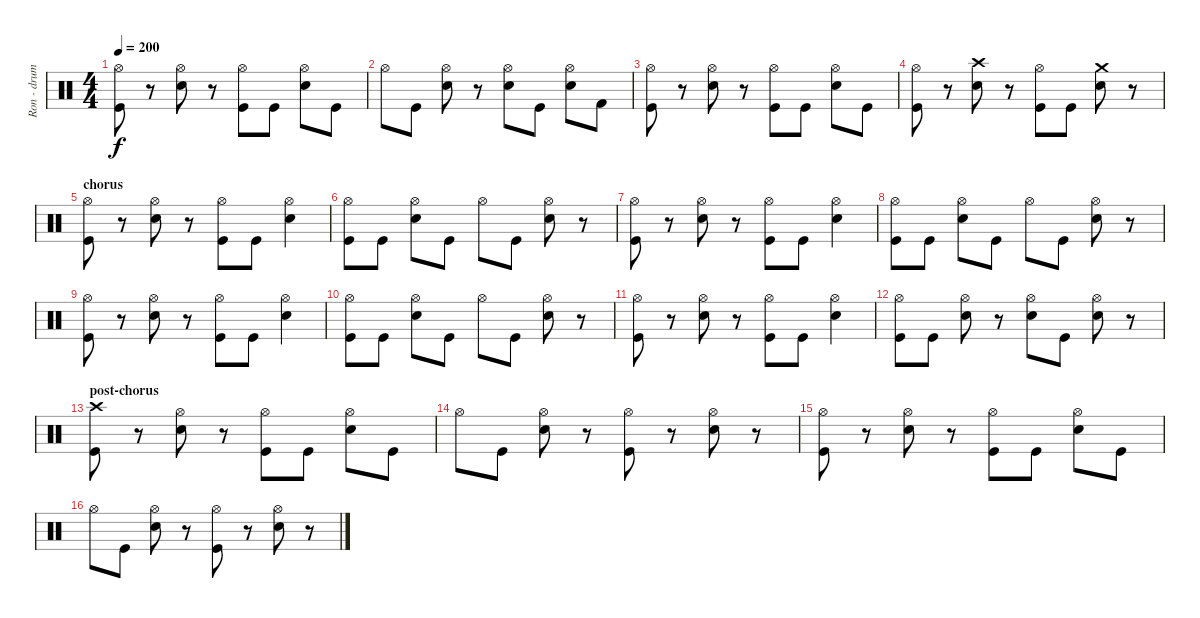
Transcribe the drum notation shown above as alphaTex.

\track ("Ron - drums" "Ron - drum") {instrument percussion}
\staff {score}
\articulation defaults
\ts (4 4)
\tempo 200
\clef neutral
\ks c
("Hi-Hat (open)" "Kick (hit)").8{dy f} r.8 ("Hi-Hat (open)" "Snare (hit) 2").8 r.8 ("Hi-Hat (open)" "Kick (hit)").8 "Kick (hit)".8 ("Hi-Hat (open)" "Snare (hit) 2").8 "Kick (hit)".8 |
"Hi-Hat (open)".8 "Kick (hit)".8 ("Hi-Hat (open)" "Snare (hit) 2").8 r.8 ("Hi-Hat (open)" "Snare (hit) 2").8 "Kick (hit)".8 ("Hi-Hat (open)" "Snare (hit) 2").8 "Kick (hit) 2".8 |
("Hi-Hat (open)" "Kick (hit)").8 r.8 ("Hi-Hat (open)" "Snare (hit) 2").8 r.8 ("Hi-Hat (open)" "Kick (hit)").8 "Kick (hit)".8 ("Hi-Hat (open)" "Snare (hit) 2").8 "Kick (hit)".8 |
("Hi-Hat (open)" "Kick (hit)").8 r.8 ("Crash high (hit)" "Snare (hit) 2").8 r.8 ("Hi-Hat (open)" "Kick (hit)").8 "Kick (hit)".8 ("Crash medium (hit)" "Snare (hit) 2").8 r.8 |
\section ("" "chorus")
("Hi-Hat (open)" "Kick (hit)").8 r.8 ("Hi-Hat (open)" "Snare (hit) 2").8 r.8 ("Hi-Hat (open)" "Kick (hit)").8 "Kick (hit)".8 ("Hi-Hat (open)" "Snare (hit) 2").4 |
("Hi-Hat (open)" "Kick (hit)").8 "Kick (hit)".8 ("Hi-Hat (open)" "Snare (hit) 2").8 "Kick (hit)".8 "Hi-Hat (open)".8 "Kick (hit)".8 ("Hi-Hat (open)" "Snare (hit) 2").8 r.8 |
("Hi-Hat (open)" "Kick (hit)").8 r.8 ("Hi-Hat (open)" "Snare (hit) 2").8 r.8 ("Hi-Hat (open)" "Kick (hit)").8 "Kick (hit)".8 ("Hi-Hat (open)" "Snare (hit) 2").4 |
("Hi-Hat (open)" "Kick (hit)").8 "Kick (hit)".8 ("Hi-Hat (open)" "Snare (hit) 2").8 "Kick (hit)".8 "Hi-Hat (open)".8 "Kick (hit)".8 ("Hi-Hat (open)" "Snare (hit) 2").8 r.8 |
("Hi-Hat (open)" "Kick (hit)").8 r.8 ("Hi-Hat (open)" "Snare (hit) 2").8 r.8 ("Hi-Hat (open)" "Kick (hit)").8 "Kick (hit)".8 ("Hi-Hat (open)" "Snare (hit) 2").4 |
("Hi-Hat (open)" "Kick (hit)").8 "Kick (hit)".8 ("Hi-Hat (open)" "Snare (hit) 2").8 "Kick (hit)".8 "Hi-Hat (open)".8 "Kick (hit)".8 ("Hi-Hat (open)" "Snare (hit) 2").8 r.8 |
("Hi-Hat (open)" "Kick (hit)").8 r.8 ("Hi-Hat (open)" "Snare (hit) 2").8 r.8 ("Hi-Hat (open)" "Kick (hit)").8 "Kick (hit)".8 ("Hi-Hat (open)" "Snare (hit) 2").4 |
("Hi-Hat (open)" "Kick (hit)").8 "Kick (hit)".8 ("Hi-Hat (open)" "Snare (hit) 2").8 r.8 ("Hi-Hat (open)" "Snare (hit) 2").8 "Kick (hit)".8 ("Hi-Hat (open)" "Snare (hit) 2").8 r.8 |
\section ("" "post-chorus")
("Crash high (hit)" "Kick (hit)").8 r.8 ("Hi-Hat (open)" "Snare (hit) 2").8 r.8 ("Hi-Hat (open)" "Kick (hit)").8 "Kick (hit)".8 ("Hi-Hat (open)" "Snare (hit) 2").8 "Kick (hit)".8 |
"Hi-Hat (open)".8 "Kick (hit)".8 ("Hi-Hat (open)" "Snare (hit) 2").8 r.8 ("Hi-Hat (open)" "Kick (hit)").8 r.8 ("Hi-Hat (open)" "Snare (hit) 2").8 r.8 |
("Hi-Hat (open)" "Kick (hit)").8 r.8 ("Hi-Hat (open)" "Snare (hit) 2").8 r.8 ("Hi-Hat (open)" "Kick (hit)").8 "Kick (hit)".8 ("Hi-Hat (open)" "Snare (hit) 2").8 "Kick (hit)".8 |
"Hi-Hat (open)".8 "Kick (hit)".8 ("Hi-Hat (open)" "Snare (hit) 2").8 r.8 ("Hi-Hat (open)" "Kick (hit)").8 r.8 ("Hi-Hat (open)" "Snare (hit) 2").8 r.8
